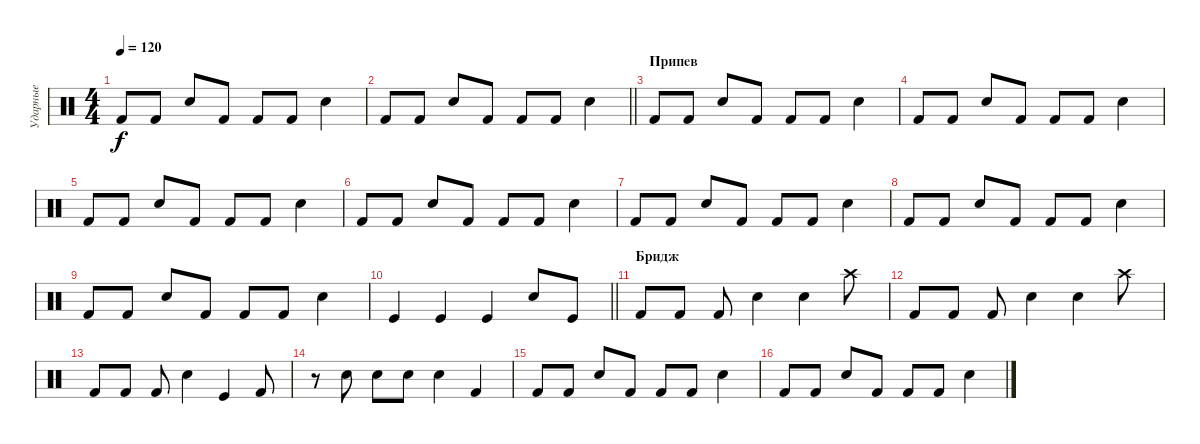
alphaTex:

\track ("Ударные" "Ударные") {instrument percussion}
\staff {score}
\articulation defaults
\ts (4 4)
\tempo 120
\clef neutral
\ks c "Kick (hit) 2".8{dy f} "Kick (hit) 2".8 "Electric Snare (hit)".8 "Kick (hit) 2".8 "Kick (hit) 2".8 "Kick (hit) 2".8 "Electric Snare (hit)".4
|
\barLineRight lightlight "Kick (hit) 2".8 "Kick (hit) 2".8 "Electric Snare (hit)".8 "Kick (hit) 2".8 "Kick (hit) 2".8 "Kick (hit) 2".8 "Electric Snare (hit)".4
|
\section ("" "Припев")
"Kick (hit) 2".8 "Kick (hit) 2".8 "Electric Snare (hit)".8 "Kick (hit) 2".8 "Kick (hit) 2".8 "Kick (hit) 2".8 "Electric Snare (hit)".4 |
"Kick (hit) 2".8 "Kick (hit) 2".8 "Electric Snare (hit)".8 "Kick (hit) 2".8 "Kick (hit) 2".8 "Kick (hit) 2".8 "Electric Snare (hit)".4 |
"Kick (hit) 2".8 "Kick (hit) 2".8 "Electric Snare (hit)".8 "Kick (hit) 2".8 "Kick (hit) 2".8 "Kick (hit) 2".8 "Electric Snare (hit)".4 |
"Kick (hit) 2".8 "Kick (hit) 2".8 "Electric Snare (hit)".8 "Kick (hit) 2".8 "Kick (hit) 2".8 "Kick (hit) 2".8 "Electric Snare (hit)".4 |
"Kick (hit) 2".8 "Kick (hit) 2".8 "Electric Snare (hit)".8 "Kick (hit) 2".8 "Kick (hit) 2".8 "Kick (hit) 2".8 "Electric Snare (hit)".4 |
"Kick (hit) 2".8 "Kick (hit) 2".8 "Electric Snare (hit)".8 "Kick (hit) 2".8 "Kick (hit) 2".8 "Kick (hit) 2".8 "Electric Snare (hit)".4 |
"Kick (hit) 2".8 "Kick (hit) 2".8 "Electric Snare (hit)".8 "Kick (hit) 2".8 "Kick (hit) 2".8 "Kick (hit) 2".8 "Electric Snare (hit)".4 |
\barLineRight lightlight "Kick (hit)".4 "Kick (hit)".4 "Kick (hit)".4 "Electric Snare (hit)".8 "Kick (hit)".8
|
\section ("" "Бридж")
"Kick (hit) 2".8 "Kick (hit) 2".8 "Kick (hit) 2".8 "Electric Snare (hit)".4 "Electric Snare (hit)".4 "Crash high (hit)".8 |
"Kick (hit) 2".8 "Kick (hit) 2".8 "Kick (hit) 2".8 "Electric Snare (hit)".4 "Electric Snare (hit)".4 "Crash high (hit)".8 |
"Kick (hit) 2".8 "Kick (hit) 2".8 "Kick (hit) 2".8 "Electric Snare (hit)".4 "Kick (hit)".4 "Kick (hit) 2".8 |
r.8 "Electric Snare (hit)".8 "Electric Snare (hit)".8 "Electric Snare (hit)".8 "Electric Snare (hit)".4 "Kick (hit) 2".4 |
"Kick (hit) 2".8 "Kick (hit) 2".8 "Electric Snare (hit)".8 "Kick (hit) 2".8 "Kick (hit) 2".8 "Kick (hit) 2".8 "Electric Snare (hit)".4 |
"Kick (hit) 2".8 "Kick (hit) 2".8 "Electric Snare (hit)".8 "Kick (hit) 2".8 "Kick (hit) 2".8 "Kick (hit) 2".8 "Electric Snare (hit)".4
